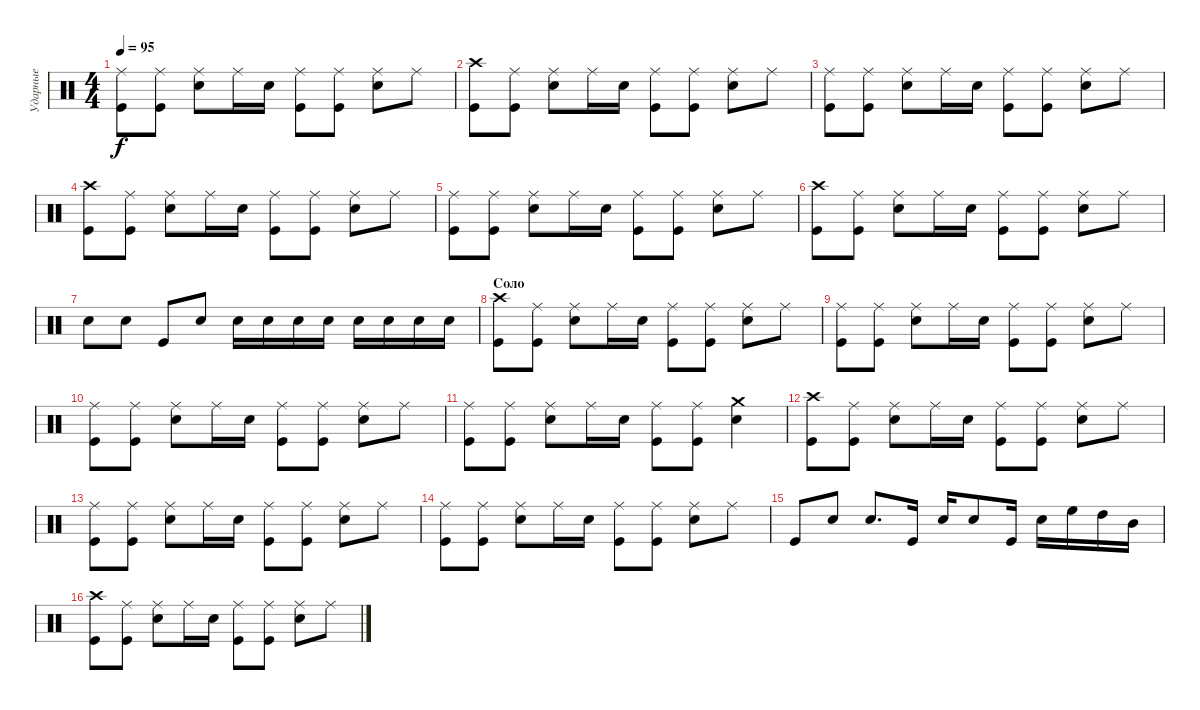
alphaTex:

\track ("Ударные" "Ударные") {instrument percussion}
\staff {score}
\articulation defaults
\ts (4 4)
\tempo 95
\clef neutral
\ks c
("Ride (middle)" "Kick (hit)").8{dy f} ("Ride (middle)" "Kick (hit)").8 ("Ride (middle)" "Snare (hit) 2").8 "Ride (middle)".16 "Snare (hit) 2".16 ("Ride (middle)" "Kick (hit)").8 ("Ride (middle)" "Kick (hit)").8 ("Ride (middle)" "Snare (hit) 2").8 "Ride (middle)".8 |
("Crash high (hit)" "Kick (hit)").8 ("Ride (middle)" "Kick (hit)").8 ("Ride (middle)" "Snare (hit) 2").8 "Ride (middle)".16 "Snare (hit) 2".16 ("Ride (middle)" "Kick (hit)").8 ("Ride (middle)" "Kick (hit)").8 ("Ride (middle)" "Snare (hit) 2").8 "Ride (middle)".8 |
("Ride (middle)" "Kick (hit)").8 ("Ride (middle)" "Kick (hit)").8 ("Ride (middle)" "Snare (hit) 2").8 "Ride (middle)".16 "Snare (hit) 2".16 ("Ride (middle)" "Kick (hit)").8 ("Ride (middle)" "Kick (hit)").8 ("Ride (middle)" "Snare (hit) 2").8 "Ride (middle)".8 |
("Crash high (hit)" "Kick (hit)").8 ("Ride (middle)" "Kick (hit)").8 ("Ride (middle)" "Snare (hit) 2").8 "Ride (middle)".16 "Snare (hit) 2".16 ("Ride (middle)" "Kick (hit)").8 ("Ride (middle)" "Kick (hit)").8 ("Ride (middle)" "Snare (hit) 2").8 "Ride (middle)".8 |
("Ride (middle)" "Kick (hit)").8 ("Ride (middle)" "Kick (hit)").8 ("Ride (middle)" "Snare (hit) 2").8 "Ride (middle)".16 "Snare (hit) 2".16 ("Ride (middle)" "Kick (hit)").8 ("Ride (middle)" "Kick (hit)").8 ("Ride (middle)" "Snare (hit) 2").8 "Ride (middle)".8 |
("Crash high (hit)" "Kick (hit)").8 ("Ride (middle)" "Kick (hit)").8 ("Ride (middle)" "Snare (hit) 2").8 "Ride (middle)".16 "Snare (hit) 2".16 ("Ride (middle)" "Kick (hit)").8 ("Ride (middle)" "Kick (hit)").8 ("Ride (middle)" "Snare (hit) 2").8 "Ride (middle)".8 |
"Snare (hit) 2".8 "Snare (hit) 2".8 "Kick (hit)".8 "Snare (hit) 2".8 "Snare (hit) 2".16 "Snare (hit) 2".16 "Snare (hit) 2".16 "Snare (hit) 2".16 "Snare (hit) 2".16 "Snare (hit) 2".16 "Snare (hit) 2".16 "Snare (hit) 2".16 |
\section ("" "Соло")
("Crash high (hit)" "Kick (hit)").8 ("Ride (middle)" "Kick (hit)").8 ("Ride (middle)" "Snare (hit) 2").8 "Ride (middle)".16 "Snare (hit) 2".16 ("Ride (middle)" "Kick (hit)").8 ("Ride (middle)" "Kick (hit)").8 ("Ride (middle)" "Snare (hit) 2").8 "Ride (middle)".8 |
("Ride (middle)" "Kick (hit)").8 ("Ride (middle)" "Kick (hit)").8 ("Ride (middle)" "Snare (hit) 2").8 "Ride (middle)".16 "Snare (hit) 2".16 ("Ride (middle)" "Kick (hit)").8 ("Ride (middle)" "Kick (hit)").8 ("Ride (middle)" "Snare (hit) 2").8 "Ride (middle)".8 |
("Ride (middle)" "Kick (hit)").8 ("Ride (middle)" "Kick (hit)").8 ("Ride (middle)" "Snare (hit) 2").8 "Ride (middle)".16 "Snare (hit) 2".16 ("Ride (middle)" "Kick (hit)").8 ("Ride (middle)" "Kick (hit)").8 ("Ride (middle)" "Snare (hit) 2").8 "Ride (middle)".8 |
("Ride (middle)" "Kick (hit)").8 ("Ride (middle)" "Kick (hit)").8 ("Ride (middle)" "Snare (hit) 2").8 "Ride (middle)".16 "Snare (hit) 2".16 ("Ride (middle)" "Kick (hit)").8 ("Ride (middle)" "Kick (hit)").8 ("Crash medium (hit)" "Snare (hit) 2").4 |
("Crash high (hit)" "Kick (hit)").8 ("Ride (middle)" "Kick (hit)").8 ("Ride (middle)" "Snare (hit) 2").8 "Ride (middle)".16 "Snare (hit) 2".16 ("Ride (middle)" "Kick (hit)").8 ("Ride (middle)" "Kick (hit)").8 ("Ride (middle)" "Snare (hit) 2").8 "Ride (middle)".8 |
("Ride (middle)" "Kick (hit)").8 ("Ride (middle)" "Kick (hit)").8 ("Ride (middle)" "Snare (hit) 2").8 "Ride (middle)".16 "Snare (hit) 2".16 ("Ride (middle)" "Kick (hit)").8 ("Ride (middle)" "Kick (hit)").8 ("Ride (middle)" "Snare (hit) 2").8 "Ride (middle)".8 |
("Ride (middle)" "Kick (hit)").8 ("Ride (middle)" "Kick (hit)").8 ("Ride (middle)" "Snare (hit) 2").8 "Ride (middle)".16 "Snare (hit) 2".16 ("Ride (middle)" "Kick (hit)").8 ("Ride (middle)" "Kick (hit)").8 ("Ride (middle)" "Snare (hit) 2").8 "Ride (middle)".8 |
"Kick (hit)".8 "Snare (hit) 2".8 "Snare (hit) 2".8{d} "Kick (hit)".16 "Snare (hit) 2".16 "Snare (hit) 2".8 "Kick (hit)".16 "Snare (hit) 2".16 "High Floor Tom (hit)".16 "High Tom (hit)".16 "Mid Tom (hit)".16 |
("Crash high (hit)" "Kick (hit)").8 ("Ride (middle)" "Kick (hit)").8 ("Ride (middle)" "Snare (hit) 2").8 "Ride (middle)".16 "Snare (hit) 2".16 ("Ride (middle)" "Kick (hit)").8 ("Ride (middle)" "Kick (hit)").8 ("Ride (middle)" "Snare (hit) 2").8 "Ride (middle)".8
